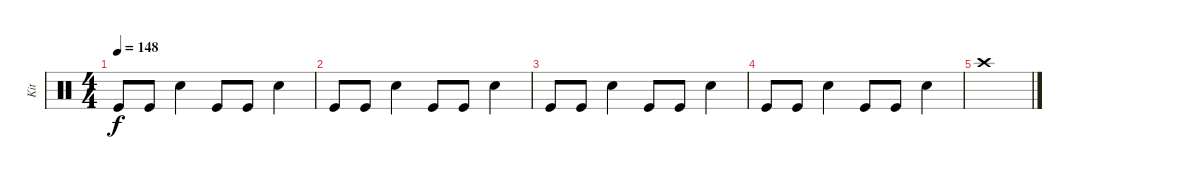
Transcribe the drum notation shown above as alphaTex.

\track ("Kit" "Kit") {instrument percussion}
\staff {score}
\articulation defaults
\ts (4 4)
\tempo 148
\clef neutral
\ks c "Kick (hit)".8{dy f} "Kick (hit)".8 "Snare (hit) 2".4 "Kick (hit)".8 "Kick (hit)".8 "Snare (hit) 2".4
|
"Kick (hit)".8 "Kick (hit)".8 "Snare (hit) 2".4 "Kick (hit)".8 "Kick (hit)".8 "Snare (hit) 2".4 |
"Kick (hit)".8 "Kick (hit)".8 "Snare (hit) 2".4 "Kick (hit)".8 "Kick (hit)".8 "Snare (hit) 2".4 |
"Kick (hit)".8 "Kick (hit)".8 "Snare (hit) 2".4 "Kick (hit)".8 "Kick (hit)".8 "Snare (hit) 2".4 |
"Crash high (hit)".1
